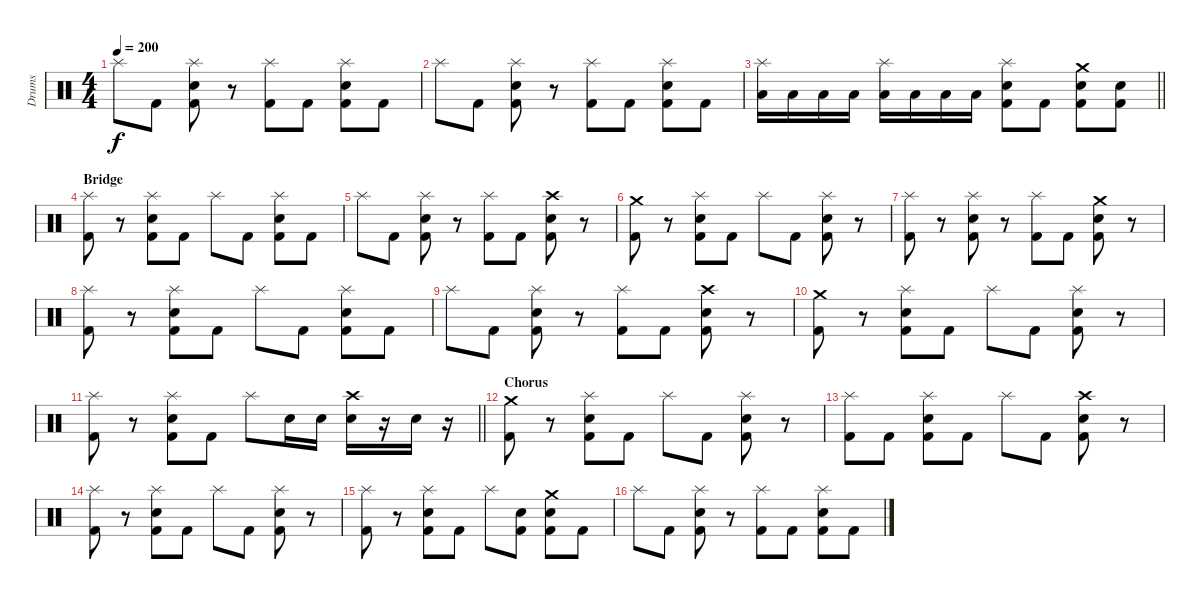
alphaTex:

\track ("Drums" "Drums") {instrument percussion}
\staff {score}
\articulation defaults
\ts (4 4)
\tempo 200
\clef neutral
\ks c "Splash (hit)".8{dy f} "Kick (hit) 2".8
("Splash (hit)" "Snare (hit) 2" "Kick (hit) 2").8 r.8 ("Splash (hit)" "Kick (hit) 2").8 "Kick (hit) 2".8 ("Splash (hit)" "Snare (hit) 2" "Kick (hit) 2").8 "Kick (hit) 2".8 |
"Splash (hit)".8 "Kick (hit) 2".8 ("Splash (hit)" "Snare (hit) 2" "Kick (hit) 2").8 r.8 ("Splash (hit)" "Kick (hit) 2").8 "Kick (hit) 2".8 ("Splash (hit)" "Snare (hit) 2" "Kick (hit) 2").8 "Kick (hit) 2".8 |
\barLineRight lightlight
("Splash (hit)" "Low Tom (hit)").16 "Low Tom (hit)".16 "Low Tom (hit)".16 "Low Tom (hit)".16 ("Splash (hit)" "Low Floor Tom (hit)").16 "Low Floor Tom (hit)".16 "Low Floor Tom (hit)".16 "Low Floor Tom (hit)".16 ("Splash (hit)" "Snare (hit) 2" "Kick (hit) 2").8 "Kick (hit) 2".8 ("Crash medium (hit)" "Snare (hit) 2" "Kick (hit) 2").8 ("Snare (hit) 2" "Kick (hit) 2").8 |
\section ("" "Bridge")
("Splash (hit)" "Kick (hit) 2").8 r.8 ("Splash (hit)" "Snare (hit) 2" "Kick (hit) 2").8 "Kick (hit) 2".8 "Splash (hit)".8 "Kick (hit) 2".8 ("Splash (hit)" "Snare (hit) 2" "Kick (hit) 2").8 "Kick (hit) 2".8 |
"Splash (hit)".8 "Kick (hit) 2".8 ("Splash (hit)" "Snare (hit) 2" "Kick (hit) 2").8 r.8 ("Splash (hit)" "Kick (hit) 2").8 "Kick (hit) 2".8 ("Crash high (hit)" "Snare (hit) 2" "Kick (hit) 2").8 r.8 |
("Crash medium (hit)" "Kick (hit) 2").8 r.8 ("Splash (hit)" "Snare (hit) 2" "Kick (hit) 2").8 "Kick (hit) 2".8 "Splash (hit)".8 "Kick (hit) 2".8 ("Splash (hit)" "Snare (hit) 2" "Kick (hit) 2").8 r.8 |
("Splash (hit)" "Kick (hit) 2").8 r.8 ("Splash (hit)" "Snare (hit) 2" "Kick (hit) 2").8 r.8 ("Splash (hit)" "Kick (hit) 2").8 "Kick (hit) 2".8 ("Crash medium (hit)" "Snare (hit) 2" "Kick (hit) 2").8 r.8 |
("Splash (hit)" "Kick (hit) 2").8 r.8 ("Splash (hit)" "Snare (hit) 2" "Kick (hit) 2").8 "Kick (hit) 2".8 "Splash (hit)".8 "Kick (hit) 2".8 ("Splash (hit)" "Snare (hit) 2" "Kick (hit) 2").8 "Kick (hit) 2".8 |
"Splash (hit)".8 "Kick (hit) 2".8 ("Splash (hit)" "Snare (hit) 2" "Kick (hit) 2").8 r.8 ("Splash (hit)" "Kick (hit) 2").8 "Kick (hit) 2".8 ("Crash high (hit)" "Snare (hit) 2" "Kick (hit) 2").8 r.8 |
("Crash medium (hit)" "Kick (hit) 2").8 r.8 ("Splash (hit)" "Snare (hit) 2" "Kick (hit) 2").8 "Kick (hit) 2".8 "Splash (hit)".8 "Kick (hit) 2".8 ("Splash (hit)" "Snare (hit) 2" "Kick (hit) 2").8 r.8 |
\barLineRight lightlight
("Splash (hit)" "Kick (hit) 2").8 r.8 ("Splash (hit)" "Snare (hit) 2" "Kick (hit) 2").8 "Kick (hit) 2".8 "Splash (hit)".8 "Snare (hit) 2".16 "Snare (hit) 2".16 ("Crash high (hit)" "Snare (hit) 2").16 r.16 "Snare (hit) 2".16 r.16 |
\section ("" "Chorus")
("Crash medium (hit)" "Kick (hit) 2").8 r.8 ("Splash (hit)" "Snare (hit) 2" "Kick (hit) 2").8 "Kick (hit) 2".8 "Splash (hit)".8 "Kick (hit) 2".8 ("Splash (hit)" "Snare (hit) 2" "Kick (hit) 2").8 r.8 |
("Splash (hit)" "Kick (hit) 2").8 "Kick (hit) 2".8 ("Splash (hit)" "Snare (hit) 2" "Kick (hit) 2").8 "Kick (hit) 2".8 "Splash (hit)".8 "Kick (hit) 2".8 ("Crash high (hit)" "Snare (hit) 2" "Kick (hit) 2").8 r.8 |
("Splash (hit)" "Kick (hit) 2").8 r.8 ("Splash (hit)" "Snare (hit) 2" "Kick (hit) 2").8 "Kick (hit) 2".8 "Splash (hit)".8 "Kick (hit) 2".8 ("Splash (hit)" "Snare (hit) 2" "Kick (hit) 2").8 r.8 |
("Splash (hit)" "Kick (hit) 2").8 r.8 ("Splash (hit)" "Snare (hit) 2" "Kick (hit) 2").8 "Kick (hit) 2".8 "Splash (hit)".8 ("Snare (hit) 2" "Kick (hit) 2").8 ("Crash medium (hit)" "Snare (hit) 2" "Kick (hit) 2").8 "Kick (hit) 2".8 |
"Splash (hit)".8 "Kick (hit) 2".8 ("Splash (hit)" "Snare (hit) 2" "Kick (hit) 2").8 r.8 ("Splash (hit)" "Kick (hit) 2").8 "Kick (hit) 2".8 ("Splash (hit)" "Snare (hit) 2" "Kick (hit) 2").8 "Kick (hit) 2".8
